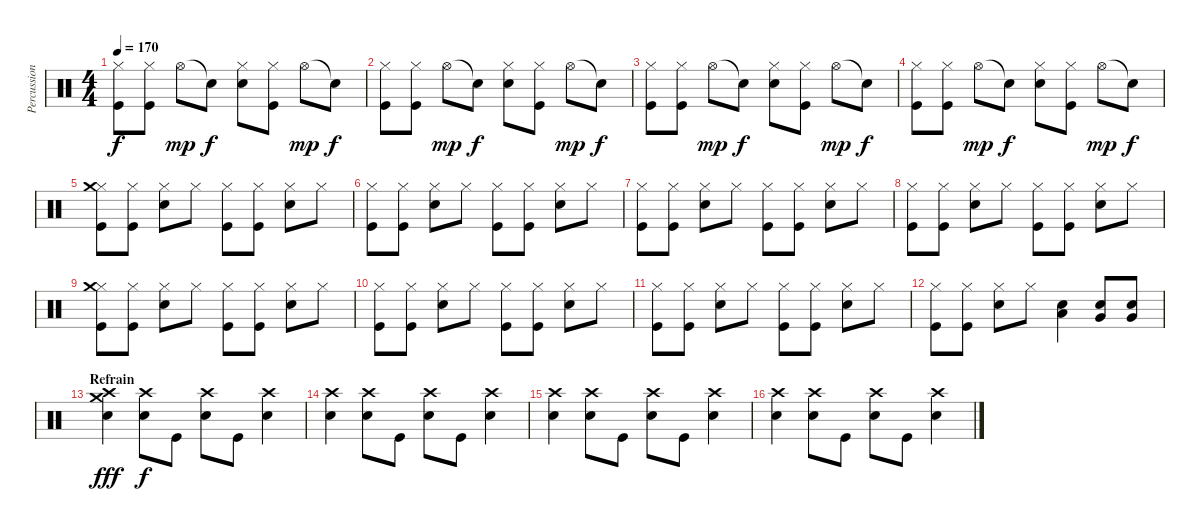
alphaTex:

\track ("Percussions" "Percussion") {instrument percussion}
\staff {score}
\articulation defaults
\ts (4 4)
\tempo 170
\clef neutral
\ks c
("Hi-Hat (closed)" "Kick (hit)").8{dy f} ("Hi-Hat (closed)" "Kick (hit)").8 "Hi-Hat (open)".8{dy mp} "Snare (hit)"{t}.8{dy f} ("Hi-Hat (closed)" "Electric Snare (hit)").8 ("Hi-Hat (closed)" "Kick (hit)").8 "Hi-Hat (open)".8{dy mp} "Snare (hit)"{t}.8{dy f} |
("Hi-Hat (closed)" "Kick (hit)").8 ("Hi-Hat (closed)" "Kick (hit)").8 "Hi-Hat (open)".8{dy mp} "Snare (hit)"{t}.8{dy f} ("Hi-Hat (closed)" "Electric Snare (hit)").8 ("Hi-Hat (closed)" "Kick (hit)").8 "Hi-Hat (open)".8{dy mp} "Snare (hit)"{t}.8{dy f} |
("Hi-Hat (closed)" "Kick (hit)").8 ("Hi-Hat (closed)" "Kick (hit)").8 "Hi-Hat (open)".8{dy mp} "Snare (hit)"{t}.8{dy f} ("Hi-Hat (closed)" "Electric Snare (hit)").8 ("Hi-Hat (closed)" "Kick (hit)").8 "Hi-Hat (open)".8{dy mp} "Snare (hit)"{t}.8{dy f} |
("Hi-Hat (closed)" "Kick (hit)").8 ("Hi-Hat (closed)" "Kick (hit)").8 "Hi-Hat (open)".8{dy mp} "Snare (hit)"{t}.8{dy f} ("Hi-Hat (closed)" "Electric Snare (hit)").8 ("Hi-Hat (closed)" "Kick (hit)").8 "Hi-Hat (open)".8{dy mp} "Snare (hit)"{t}.8{dy f} |
("Hi-Hat (closed)" "Crash medium (hit)" "Kick (hit)").8 ("Hi-Hat (closed)" "Kick (hit)").8 ("Hi-Hat (closed)" "Electric Snare (hit)").8 "Hi-Hat (closed)".8 ("Hi-Hat (closed)" "Kick (hit)").8 ("Hi-Hat (closed)" "Kick (hit)").8 ("Hi-Hat (closed)" "Electric Snare (hit)").8 "Hi-Hat (closed)".8 |
("Hi-Hat (closed)" "Kick (hit)").8 ("Hi-Hat (closed)" "Kick (hit)").8 ("Hi-Hat (closed)" "Electric Snare (hit)").8 "Hi-Hat (closed)".8 ("Hi-Hat (closed)" "Kick (hit)").8 ("Hi-Hat (closed)" "Kick (hit)").8 ("Hi-Hat (closed)" "Electric Snare (hit)").8 "Hi-Hat (closed)".8 |
("Hi-Hat (closed)" "Kick (hit)").8 ("Hi-Hat (closed)" "Kick (hit)").8 ("Hi-Hat (closed)" "Electric Snare (hit)").8 "Hi-Hat (closed)".8 ("Hi-Hat (closed)" "Kick (hit)").8 ("Hi-Hat (closed)" "Kick (hit)").8 ("Hi-Hat (closed)" "Electric Snare (hit)").8 "Hi-Hat (closed)".8 |
("Hi-Hat (closed)" "Kick (hit)").8 ("Hi-Hat (closed)" "Kick (hit)").8 ("Hi-Hat (closed)" "Electric Snare (hit)").8 "Hi-Hat (closed)".8 ("Hi-Hat (closed)" "Kick (hit)").8 ("Hi-Hat (closed)" "Kick (hit)").8 ("Hi-Hat (closed)" "Electric Snare (hit)").8 "Hi-Hat (closed)".8 |
("Hi-Hat (closed)" "Crash medium (hit)" "Kick (hit)").8 ("Hi-Hat (closed)" "Kick (hit)").8 ("Hi-Hat (closed)" "Electric Snare (hit)").8 "Hi-Hat (closed)".8 ("Hi-Hat (closed)" "Kick (hit)").8 ("Hi-Hat (closed)" "Kick (hit)").8 ("Hi-Hat (closed)" "Electric Snare (hit)").8 "Hi-Hat (closed)".8 |
("Hi-Hat (closed)" "Kick (hit)").8 ("Hi-Hat (closed)" "Kick (hit)").8 ("Hi-Hat (closed)" "Electric Snare (hit)").8 "Hi-Hat (closed)".8 ("Hi-Hat (closed)" "Kick (hit)").8 ("Hi-Hat (closed)" "Kick (hit)").8 ("Hi-Hat (closed)" "Electric Snare (hit)").8 "Hi-Hat (closed)".8 |
("Hi-Hat (closed)" "Kick (hit)").8 ("Hi-Hat (closed)" "Kick (hit)").8 ("Hi-Hat (closed)" "Electric Snare (hit)").8 "Hi-Hat (closed)".8 ("Hi-Hat (closed)" "Kick (hit)").8 ("Hi-Hat (closed)" "Kick (hit)").8 ("Hi-Hat (closed)" "Electric Snare (hit)").8 "Hi-Hat (closed)".8 |
("Hi-Hat (closed)" "Kick (hit)").8 ("Hi-Hat (closed)" "Kick (hit)").8 ("Hi-Hat (closed)" "Electric Snare (hit)").8 "Hi-Hat (closed)".8 ("Low Floor Tom (hit)" "Electric Snare (hit)").4 ("Very Low Tom (hit)" "Electric Snare (hit)").8 ("Very Low Tom (hit)" "Electric Snare (hit)").8 |
\section ("" "Refrain")
("Crash high (hit)" "Crash medium (hit)" "Electric Snare (hit)").4{dy fff} ("Crash high (hit)" "Electric Snare (hit)").8{dy f} "Kick (hit)".8 ("Crash high (hit)" "Electric Snare (hit)").8 "Kick (hit)".8 ("Crash high (hit)" "Electric Snare (hit)").4 |
("Crash high (hit)" "Electric Snare (hit)").4 ("Crash high (hit)" "Electric Snare (hit)").8 "Kick (hit)".8 ("Crash high (hit)" "Electric Snare (hit)").8 "Kick (hit)".8 ("Crash high (hit)" "Electric Snare (hit)").4 |
("Crash high (hit)" "Electric Snare (hit)").4 ("Crash high (hit)" "Electric Snare (hit)").8 "Kick (hit)".8 ("Crash high (hit)" "Electric Snare (hit)").8 "Kick (hit)".8 ("Crash high (hit)" "Electric Snare (hit)").4 |
("Crash high (hit)" "Electric Snare (hit)").4 ("Crash high (hit)" "Electric Snare (hit)").8 "Kick (hit)".8 ("Crash high (hit)" "Electric Snare (hit)").8 "Kick (hit)".8 ("Crash high (hit)" "Electric Snare (hit)").4
